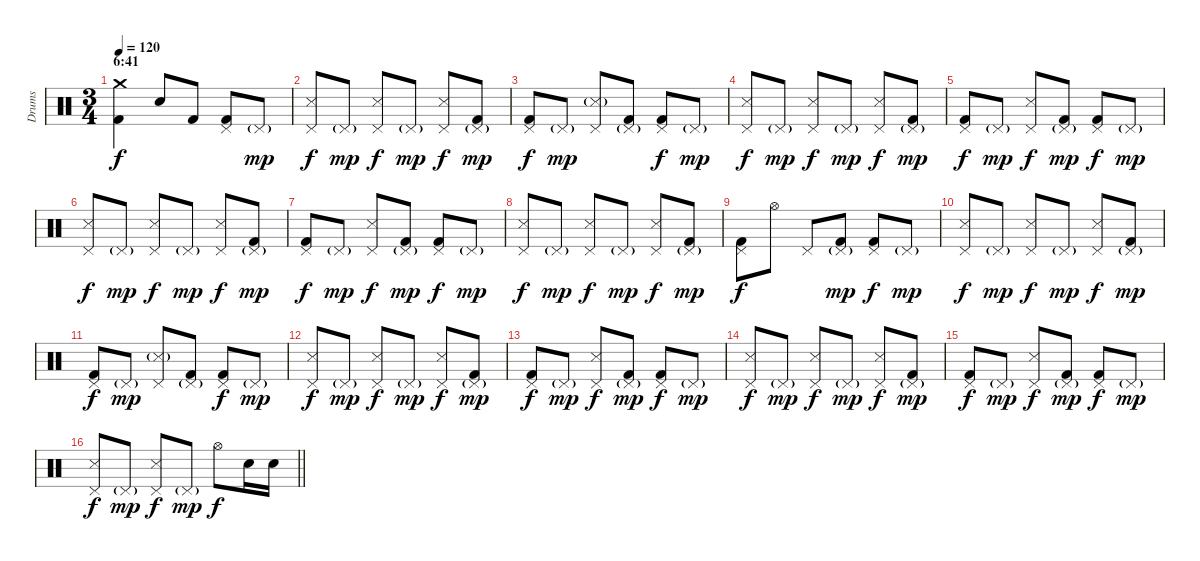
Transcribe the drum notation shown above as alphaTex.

\track ("Drums" "Drums") {instrument percussion}
\staff {score}
\articulation defaults
\ts (3 4)
\section ("" "6:41")
\tempo 120
\clef neutral
\ks c
("Crash medium (hit)" "Kick (hit) 2").4{dy f volume 13} "Snare (hit) 2".8 "Kick (hit) 2".8 ("Pedal Hi-Hat (hit)" "Kick (hit) 2").8 "Pedal Hi-Hat (hit)"{g}.8{dy mp} |
("Pedal Hi-Hat (hit)" "Snare (side stick) 3").8{dy f} "Pedal Hi-Hat (hit)"{g}.8{dy mp} ("Pedal Hi-Hat (hit)" "Snare (side stick) 3").8{dy f} "Pedal Hi-Hat (hit)"{g}.8{dy mp} ("Pedal Hi-Hat (hit)" "Snare (side stick) 3").8{dy f} ("Pedal Hi-Hat (hit)"{g} "Kick (hit) 2").8{dy mp} |
("Pedal Hi-Hat (hit)" "Kick (hit) 2").8{dy f} "Pedal Hi-Hat (hit)"{g}.8{dy mp} ("Pedal Hi-Hat (hit)" "Snare (side stick) 3"{g}).8 ("Pedal Hi-Hat (hit)"{g} "Kick (hit) 2").8 ("Pedal Hi-Hat (hit)" "Kick (hit) 2").8{dy f} "Pedal Hi-Hat (hit)"{g}.8{dy mp} |
("Pedal Hi-Hat (hit)" "Snare (side stick) 3").8{dy f} "Pedal Hi-Hat (hit)"{g}.8{dy mp} ("Pedal Hi-Hat (hit)" "Snare (side stick) 3").8{dy f} "Pedal Hi-Hat (hit)"{g}.8{dy mp} ("Pedal Hi-Hat (hit)" "Snare (side stick) 3").8{dy f} ("Pedal Hi-Hat (hit)"{g} "Kick (hit) 2").8{dy mp} |
("Pedal Hi-Hat (hit)" "Kick (hit) 2").8{dy f} "Pedal Hi-Hat (hit)"{g}.8{dy mp} ("Pedal Hi-Hat (hit)" "Snare (side stick) 3").8{dy f} ("Pedal Hi-Hat (hit)"{g} "Kick (hit) 2").8{dy mp} ("Pedal Hi-Hat (hit)" "Kick (hit) 2").8{dy f} "Pedal Hi-Hat (hit)"{g}.8{dy mp} |
("Pedal Hi-Hat (hit)" "Snare (side stick) 3").8{dy f} "Pedal Hi-Hat (hit)"{g}.8{dy mp} ("Pedal Hi-Hat (hit)" "Snare (side stick) 3").8{dy f} "Pedal Hi-Hat (hit)"{g}.8{dy mp} ("Pedal Hi-Hat (hit)" "Snare (side stick) 3").8{dy f} ("Pedal Hi-Hat (hit)"{g} "Kick (hit) 2").8{dy mp} |
("Pedal Hi-Hat (hit)" "Kick (hit) 2").8{dy f} "Pedal Hi-Hat (hit)"{g}.8{dy mp} ("Pedal Hi-Hat (hit)" "Snare (side stick) 3").8{dy f} ("Pedal Hi-Hat (hit)"{g} "Kick (hit) 2").8{dy mp} ("Pedal Hi-Hat (hit)" "Kick (hit) 2").8{dy f} "Pedal Hi-Hat (hit)"{g}.8{dy mp} |
("Pedal Hi-Hat (hit)" "Snare (side stick) 3").8{dy f} "Pedal Hi-Hat (hit)"{g}.8{dy mp} ("Pedal Hi-Hat (hit)" "Snare (side stick) 3").8{dy f} "Pedal Hi-Hat (hit)"{g}.8{dy mp} ("Pedal Hi-Hat (hit)" "Snare (side stick) 3").8{dy f} ("Pedal Hi-Hat (hit)"{g} "Kick (hit) 2").8{dy mp} |
("Pedal Hi-Hat (hit)" "Kick (hit) 2").8{dy f} "Hi-Hat (open)".8 "Pedal Hi-Hat (hit)".8 ("Pedal Hi-Hat (hit)"{g} "Kick (hit) 2").8{dy mp} ("Pedal Hi-Hat (hit)" "Kick (hit) 2").8{dy f} "Pedal Hi-Hat (hit)"{g}.8{dy mp} |
("Pedal Hi-Hat (hit)" "Snare (side stick) 3").8{dy f} "Pedal Hi-Hat (hit)"{g}.8{dy mp} ("Pedal Hi-Hat (hit)" "Snare (side stick) 3").8{dy f} "Pedal Hi-Hat (hit)"{g}.8{dy mp} ("Pedal Hi-Hat (hit)" "Snare (side stick) 3").8{dy f} ("Pedal Hi-Hat (hit)"{g} "Kick (hit) 2").8{dy mp} |
("Pedal Hi-Hat (hit)" "Kick (hit) 2").8{dy f} "Pedal Hi-Hat (hit)"{g}.8{dy mp} ("Pedal Hi-Hat (hit)" "Snare (side stick) 3"{g}).8 ("Pedal Hi-Hat (hit)"{g} "Kick (hit) 2").8 ("Pedal Hi-Hat (hit)" "Kick (hit) 2").8{dy f} "Pedal Hi-Hat (hit)"{g}.8{dy mp} |
("Pedal Hi-Hat (hit)" "Snare (side stick) 3").8{dy f} "Pedal Hi-Hat (hit)"{g}.8{dy mp} ("Pedal Hi-Hat (hit)" "Snare (side stick) 3").8{dy f} "Pedal Hi-Hat (hit)"{g}.8{dy mp} ("Pedal Hi-Hat (hit)" "Snare (side stick) 3").8{dy f} ("Pedal Hi-Hat (hit)"{g} "Kick (hit) 2").8{dy mp} |
("Pedal Hi-Hat (hit)" "Kick (hit) 2").8{dy f} "Pedal Hi-Hat (hit)"{g}.8{dy mp} ("Pedal Hi-Hat (hit)" "Snare (side stick) 3").8{dy f} ("Pedal Hi-Hat (hit)"{g} "Kick (hit) 2").8{dy mp} ("Pedal Hi-Hat (hit)" "Kick (hit) 2").8{dy f} "Pedal Hi-Hat (hit)"{g}.8{dy mp} |
("Pedal Hi-Hat (hit)" "Snare (side stick) 3").8{dy f} "Pedal Hi-Hat (hit)"{g}.8{dy mp} ("Pedal Hi-Hat (hit)" "Snare (side stick) 3").8{dy f} "Pedal Hi-Hat (hit)"{g}.8{dy mp} ("Pedal Hi-Hat (hit)" "Snare (side stick) 3").8{dy f} ("Pedal Hi-Hat (hit)"{g} "Kick (hit) 2").8{dy mp} |
("Pedal Hi-Hat (hit)" "Kick (hit) 2").8{dy f} "Pedal Hi-Hat (hit)"{g}.8{dy mp} ("Pedal Hi-Hat (hit)" "Snare (side stick) 3").8{dy f} ("Pedal Hi-Hat (hit)"{g} "Kick (hit) 2").8{dy mp} ("Pedal Hi-Hat (hit)" "Kick (hit) 2").8{dy f} "Pedal Hi-Hat (hit)"{g}.8{dy mp} |
\barLineRight lightlight
("Pedal Hi-Hat (hit)" "Snare (side stick) 3").8{dy f} "Pedal Hi-Hat (hit)"{g}.8{dy mp} ("Pedal Hi-Hat (hit)" "Snare (side stick) 3").8{dy f} "Pedal Hi-Hat (hit)"{g}.8{dy mp} "Hi-Hat (open)".8{dy f} "Snare (hit) 2".16 "Snare (hit) 2".16
